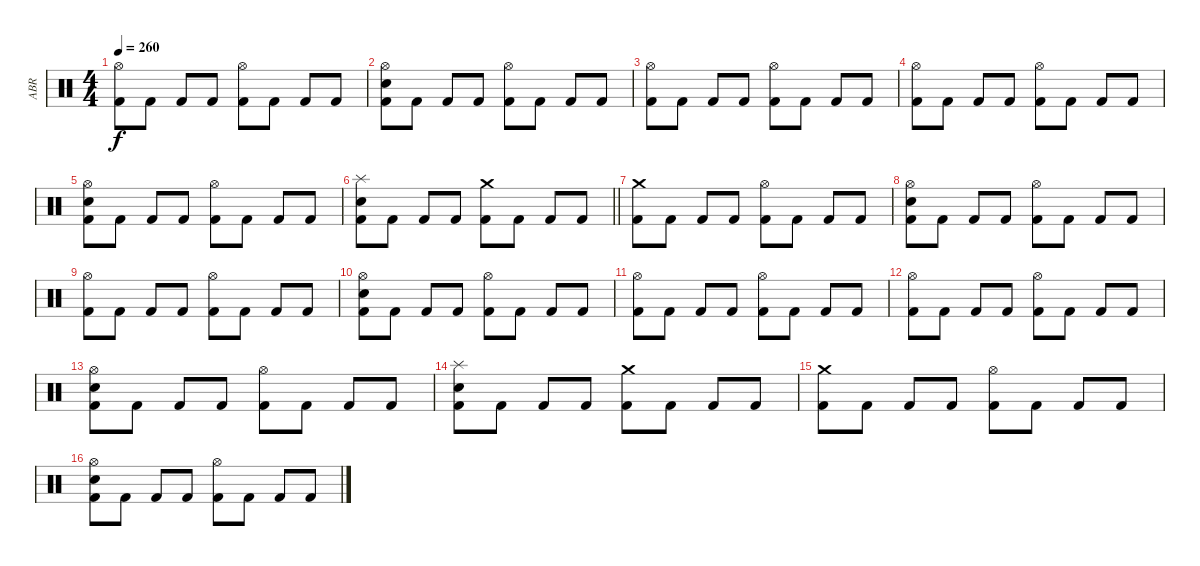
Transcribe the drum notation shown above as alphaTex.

\track ("ABR" "ABR") {instrument percussion}
\staff {score}
\articulation defaults
\ts (4 4)
\tempo 260
\clef neutral
\ks c
("Hi-Hat (open)" "Kick (hit) 2").8{dy f} "Kick (hit) 2".8 "Kick (hit) 2".8 "Kick (hit) 2".8 ("Hi-Hat (open)" "Kick (hit) 2").8 "Kick (hit) 2".8 "Kick (hit) 2".8 "Kick (hit) 2".8 |
("Hi-Hat (open)" "Snare (hit) 2" "Kick (hit) 2").8 "Kick (hit) 2".8 "Kick (hit) 2".8 "Kick (hit) 2".8 ("Hi-Hat (open)" "Kick (hit) 2").8 "Kick (hit) 2".8 "Kick (hit) 2".8 "Kick (hit) 2".8 |
("Hi-Hat (open)" "Kick (hit) 2").8 "Kick (hit) 2".8 "Kick (hit) 2".8 "Kick (hit) 2".8 ("Hi-Hat (open)" "Kick (hit) 2").8 "Kick (hit) 2".8 "Kick (hit) 2".8 "Kick (hit) 2".8 |
("Hi-Hat (open)" "Kick (hit) 2").8 "Kick (hit) 2".8 "Kick (hit) 2".8 "Kick (hit) 2".8 ("Hi-Hat (open)" "Kick (hit) 2").8 "Kick (hit) 2".8 "Kick (hit) 2".8 "Kick (hit) 2".8 |
("Hi-Hat (open)" "Snare (hit) 2" "Kick (hit) 2").8 "Kick (hit) 2".8 "Kick (hit) 2".8 "Kick (hit) 2".8 ("Hi-Hat (open)" "Kick (hit) 2").8 "Kick (hit) 2".8 "Kick (hit) 2".8 "Kick (hit) 2".8 |
\barLineRight lightlight
("Splash (hit)" "Snare (hit) 2" "Kick (hit) 2").8 "Kick (hit) 2".8 "Kick (hit) 2".8 "Kick (hit) 2".8 ("Crash medium (hit)" "Kick (hit) 2").8 "Kick (hit) 2".8 "Kick (hit) 2".8 "Kick (hit) 2".8 |
("Crash medium (hit)" "Kick (hit) 2").8{volume 10} "Kick (hit) 2".8 "Kick (hit) 2".8 "Kick (hit) 2".8 ("Hi-Hat (open)" "Kick (hit) 2").8 "Kick (hit) 2".8 "Kick (hit) 2".8 "Kick (hit) 2".8 |
("Hi-Hat (open)" "Snare (hit) 2" "Kick (hit) 2").8 "Kick (hit) 2".8 "Kick (hit) 2".8 "Kick (hit) 2".8 ("Hi-Hat (open)" "Kick (hit) 2").8 "Kick (hit) 2".8 "Kick (hit) 2".8 "Kick (hit) 2".8 |
("Hi-Hat (open)" "Kick (hit) 2").8 "Kick (hit) 2".8 "Kick (hit) 2".8 "Kick (hit) 2".8 ("Hi-Hat (open)" "Kick (hit) 2").8 "Kick (hit) 2".8 "Kick (hit) 2".8 "Kick (hit) 2".8 |
("Hi-Hat (open)" "Snare (hit) 2" "Kick (hit) 2").8 "Kick (hit) 2".8 "Kick (hit) 2".8 "Kick (hit) 2".8 ("Hi-Hat (open)" "Kick (hit) 2").8 "Kick (hit) 2".8 "Kick (hit) 2".8 "Kick (hit) 2".8 |
("Hi-Hat (open)" "Kick (hit) 2").8{volume 5} "Kick (hit) 2".8 "Kick (hit) 2".8 "Kick (hit) 2".8 ("Hi-Hat (open)" "Kick (hit) 2").8 "Kick (hit) 2".8 "Kick (hit) 2".8 "Kick (hit) 2".8 |
("Hi-Hat (open)" "Kick (hit) 2").8 "Kick (hit) 2".8 "Kick (hit) 2".8 "Kick (hit) 2".8 ("Hi-Hat (open)" "Kick (hit) 2").8 "Kick (hit) 2".8 "Kick (hit) 2".8 "Kick (hit) 2".8 |
("Hi-Hat (open)" "Snare (hit) 2" "Kick (hit) 2").8 "Kick (hit) 2".8 "Kick (hit) 2".8 "Kick (hit) 2".8 ("Hi-Hat (open)" "Kick (hit) 2").8 "Kick (hit) 2".8 "Kick (hit) 2".8 "Kick (hit) 2".8 |
("Splash (hit)" "Snare (hit) 2" "Kick (hit) 2").8 "Kick (hit) 2".8 "Kick (hit) 2".8 "Kick (hit) 2".8 ("Crash medium (hit)" "Kick (hit) 2").8 "Kick (hit) 2".8 "Kick (hit) 2".8 "Kick (hit) 2".8 |
("Crash medium (hit)" "Kick (hit) 2").8{volume 3} "Kick (hit) 2".8 "Kick (hit) 2".8 "Kick (hit) 2".8 ("Hi-Hat (open)" "Kick (hit) 2").8 "Kick (hit) 2".8 "Kick (hit) 2".8 "Kick (hit) 2".8 |
("Hi-Hat (open)" "Snare (hit) 2" "Kick (hit) 2").8 "Kick (hit) 2".8 "Kick (hit) 2".8 "Kick (hit) 2".8 ("Hi-Hat (open)" "Kick (hit) 2").8 "Kick (hit) 2".8 "Kick (hit) 2".8 "Kick (hit) 2".8
